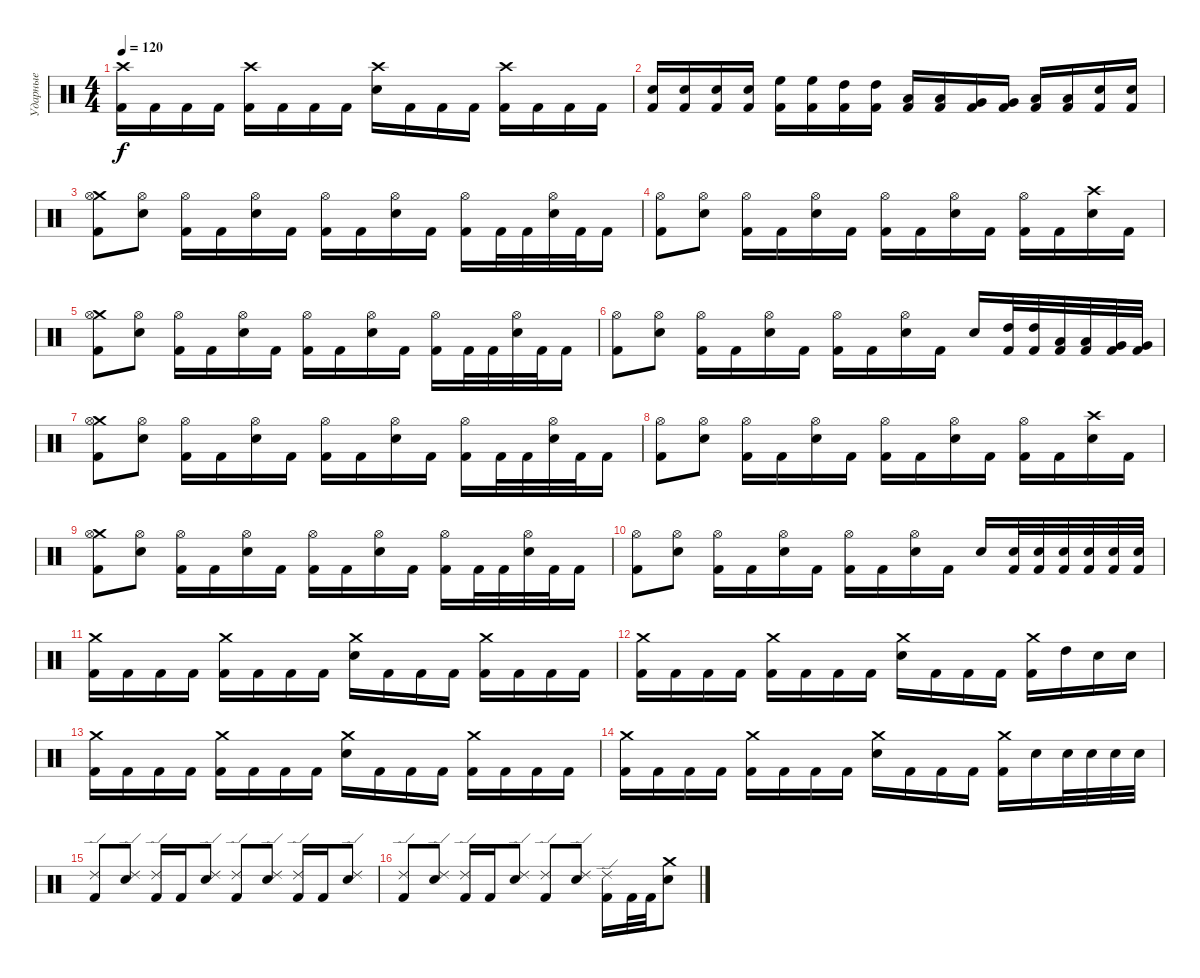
\track ("Ударные" "Ударные") {instrument percussion}
\staff {score}
\articulation defaults
\ts (4 4)
\tempo 120
\clef neutral
\ks c
("Crash high (hit)" "Kick (hit) 2").16{dy f} "Kick (hit) 2".16 "Kick (hit) 2".16 "Kick (hit) 2".16 ("Crash high (hit)" "Kick (hit) 2").16 "Kick (hit) 2".16 "Kick (hit) 2".16 "Kick (hit) 2".16 ("Crash high (hit)" "Electric Snare (hit)").16 "Kick (hit) 2".16 "Kick (hit) 2".16 "Kick (hit) 2".16 ("Crash high (hit)" "Kick (hit) 2").16 "Kick (hit) 2".16 "Kick (hit) 2".16 "Kick (hit) 2".16 |
("Kick (hit) 2" "Electric Snare (hit)").16 ("Kick (hit) 2" "Electric Snare (hit)").16 ("Kick (hit) 2" "Electric Snare (hit)").16 ("Kick (hit) 2" "Electric Snare (hit)").16 ("High Floor Tom (hit)" "Kick (hit) 2").16 ("High Floor Tom (hit)" "Kick (hit) 2").16 ("High Tom (hit)" "Kick (hit) 2").16 ("High Tom (hit)" "Kick (hit) 2").16 ("Low Tom (hit)" "Kick (hit) 2").16 ("Low Tom (hit)" "Kick (hit) 2").16 ("Very Low Tom (hit)" "Kick (hit) 2").16 ("Very Low Tom (hit)" "Kick (hit) 2").16 ("Low Floor Tom (hit)" "Kick (hit) 2").16 ("Low Floor Tom (hit)" "Kick (hit) 2").16 ("Electric Snare (hit)" "Kick (hit) 2").16 ("Electric Snare (hit)" "Kick (hit) 2").16 |
("Crash medium (hit)" "Hi-Hat (open)" "Kick (hit) 2").8 ("Hi-Hat (open)" "Electric Snare (hit)").8 ("Hi-Hat (open)" "Kick (hit) 2").16 "Kick (hit) 2".16 ("Hi-Hat (open)" "Electric Snare (hit)").16 "Kick (hit) 2".16 ("Hi-Hat (open)" "Kick (hit) 2").16 "Kick (hit) 2".16 ("Hi-Hat (open)" "Electric Snare (hit)").16 "Kick (hit) 2".16 ("Hi-Hat (open)" "Kick (hit) 2").16 "Kick (hit) 2".32 "Kick (hit) 2".32 ("Hi-Hat (open)" "Electric Snare (hit)").32 "Kick (hit) 2".32 "Kick (hit) 2".16 |
("Hi-Hat (open)" "Kick (hit) 2").8 ("Hi-Hat (open)" "Electric Snare (hit)").8 ("Hi-Hat (open)" "Kick (hit) 2").16 "Kick (hit) 2".16 ("Hi-Hat (open)" "Electric Snare (hit)").16 "Kick (hit) 2".16 ("Hi-Hat (open)" "Kick (hit) 2").16 "Kick (hit) 2".16 ("Hi-Hat (open)" "Electric Snare (hit)").16 "Kick (hit) 2".16 ("Hi-Hat (open)" "Kick (hit) 2").16 "Kick (hit) 2".16 ("Crash high (hit)" "Electric Snare (hit)").16 "Kick (hit) 2".16 |
("Crash medium (hit)" "Hi-Hat (open)" "Kick (hit) 2").8 ("Hi-Hat (open)" "Electric Snare (hit)").8 ("Hi-Hat (open)" "Kick (hit) 2").16 "Kick (hit) 2".16 ("Hi-Hat (open)" "Electric Snare (hit)").16 "Kick (hit) 2".16 ("Hi-Hat (open)" "Kick (hit) 2").16 "Kick (hit) 2".16 ("Hi-Hat (open)" "Electric Snare (hit)").16 "Kick (hit) 2".16 ("Hi-Hat (open)" "Kick (hit) 2").16 "Kick (hit) 2".32 "Kick (hit) 2".32 ("Hi-Hat (open)" "Electric Snare (hit)").32 "Kick (hit) 2".32 "Kick (hit) 2".16 |
("Hi-Hat (open)" "Kick (hit) 2").8 ("Hi-Hat (open)" "Electric Snare (hit)").8 ("Hi-Hat (open)" "Kick (hit) 2").16 "Kick (hit) 2".16 ("Hi-Hat (open)" "Electric Snare (hit)").16 "Kick (hit) 2".16 ("Hi-Hat (open)" "Kick (hit) 2").16 "Kick (hit) 2".16 ("Hi-Hat (open)" "Electric Snare (hit)").16 "Kick (hit) 2".16 "Electric Snare (hit)".16 ("High Tom (hit)" "Kick (hit) 2").32 ("High Tom (hit)" "Kick (hit) 2").32 ("Low Tom (hit)" "Kick (hit) 2").32 ("Low Tom (hit)" "Kick (hit) 2").32 ("Very Low Tom (hit)" "Kick (hit) 2").32 ("Very Low Tom (hit)" "Kick (hit) 2").32 |
("Crash medium (hit)" "Hi-Hat (open)" "Kick (hit) 2").8 ("Hi-Hat (open)" "Electric Snare (hit)").8 ("Hi-Hat (open)" "Kick (hit) 2").16 "Kick (hit) 2".16 ("Hi-Hat (open)" "Electric Snare (hit)").16 "Kick (hit) 2".16 ("Hi-Hat (open)" "Kick (hit) 2").16 "Kick (hit) 2".16 ("Hi-Hat (open)" "Electric Snare (hit)").16 "Kick (hit) 2".16 ("Hi-Hat (open)" "Kick (hit) 2").16 "Kick (hit) 2".32 "Kick (hit) 2".32 ("Hi-Hat (open)" "Electric Snare (hit)").32 "Kick (hit) 2".32 "Kick (hit) 2".16 |
("Hi-Hat (open)" "Kick (hit) 2").8 ("Hi-Hat (open)" "Electric Snare (hit)").8 ("Hi-Hat (open)" "Kick (hit) 2").16 "Kick (hit) 2".16 ("Hi-Hat (open)" "Electric Snare (hit)").16 "Kick (hit) 2".16 ("Hi-Hat (open)" "Kick (hit) 2").16 "Kick (hit) 2".16 ("Hi-Hat (open)" "Electric Snare (hit)").16 "Kick (hit) 2".16 ("Hi-Hat (open)" "Kick (hit) 2").16 "Kick (hit) 2".16 ("Crash high (hit)" "Electric Snare (hit)").16 "Kick (hit) 2".16 |
("Crash medium (hit)" "Hi-Hat (open)" "Kick (hit) 2").8 ("Hi-Hat (open)" "Electric Snare (hit)").8 ("Hi-Hat (open)" "Kick (hit) 2").16 "Kick (hit) 2".16 ("Hi-Hat (open)" "Electric Snare (hit)").16 "Kick (hit) 2".16 ("Hi-Hat (open)" "Kick (hit) 2").16 "Kick (hit) 2".16 ("Hi-Hat (open)" "Electric Snare (hit)").16 "Kick (hit) 2".16 ("Hi-Hat (open)" "Kick (hit) 2").16 "Kick (hit) 2".32 "Kick (hit) 2".32 ("Hi-Hat (open)" "Electric Snare (hit)").32 "Kick (hit) 2".32 "Kick (hit) 2".16 |
("Hi-Hat (open)" "Kick (hit) 2").8 ("Hi-Hat (open)" "Electric Snare (hit)").8 ("Hi-Hat (open)" "Kick (hit) 2").16 "Kick (hit) 2".16 ("Hi-Hat (open)" "Electric Snare (hit)").16 "Kick (hit) 2".16 ("Hi-Hat (open)" "Kick (hit) 2").16 "Kick (hit) 2".16 ("Hi-Hat (open)" "Electric Snare (hit)").16 "Kick (hit) 2".16 "Electric Snare (hit)".16 ("Electric Snare (hit)" "Kick (hit) 2").32 ("Electric Snare (hit)" "Kick (hit) 2").32 ("Electric Snare (hit)" "Kick (hit) 2").32 ("Electric Snare (hit)" "Kick (hit) 2").32 ("Electric Snare (hit)" "Kick (hit) 2").32 ("Electric Snare (hit)" "Kick (hit) 2").32 |
("Crash medium (hit)" "Kick (hit) 2").16 "Kick (hit) 2".16 "Kick (hit) 2".16 "Kick (hit) 2".16 ("Crash medium (hit)" "Kick (hit) 2").16 "Kick (hit) 2".16 "Kick (hit) 2".16 "Kick (hit) 2".16 ("Crash medium (hit)" "Electric Snare (hit)").16 "Kick (hit) 2".16 "Kick (hit) 2".16 "Kick (hit) 2".16 ("Crash medium (hit)" "Kick (hit) 2").16 "Kick (hit) 2".16 "Kick (hit) 2".16 "Kick (hit) 2".16 |
("Crash medium (hit)" "Kick (hit) 2").16 "Kick (hit) 2".16 "Kick (hit) 2".16 "Kick (hit) 2".16 ("Crash medium (hit)" "Kick (hit) 2").16 "Kick (hit) 2".16 "Kick (hit) 2".16 "Kick (hit) 2".16 ("Crash medium (hit)" "Electric Snare (hit)").16 "Kick (hit) 2".16 "Kick (hit) 2".16 "Kick (hit) 2".16 ("Crash medium (hit)" "Kick (hit) 2").16 "High Tom (hit)".16 "Electric Snare (hit)".16 "Electric Snare (hit)".16 |
("Crash medium (hit)" "Kick (hit) 2").16 "Kick (hit) 2".16 "Kick (hit) 2".16 "Kick (hit) 2".16 ("Crash medium (hit)" "Kick (hit) 2").16 "Kick (hit) 2".16 "Kick (hit) 2".16 "Kick (hit) 2".16 ("Crash medium (hit)" "Electric Snare (hit)").16 "Kick (hit) 2".16 "Kick (hit) 2".16 "Kick (hit) 2".16 ("Crash medium (hit)" "Kick (hit) 2").16 "Kick (hit) 2".16 "Kick (hit) 2".16 "Kick (hit) 2".16 |
("Crash medium (hit)" "Kick (hit) 2").16 "Kick (hit) 2".16 "Kick (hit) 2".16 "Kick (hit) 2".16 ("Crash medium (hit)" "Kick (hit) 2").16 "Kick (hit) 2".16 "Kick (hit) 2".16 "Kick (hit) 2".16 ("Crash medium (hit)" "Electric Snare (hit)").16 "Kick (hit) 2".16 "Kick (hit) 2".16 "Kick (hit) 2".16 ("Crash medium (hit)" "Kick (hit) 2").16 "Electric Snare (hit)".16 "Electric Snare (hit)".32 "Electric Snare (hit)".32 "Electric Snare (hit)".32 "Electric Snare (hit)".32 |
("Ride (edge) 2" "Kick (hit) 2").8 ("Ride (edge) 2" "Electric Snare (hit)").8 ("Ride (edge) 2" "Kick (hit) 2").16 "Kick (hit) 2".16 ("Ride (edge) 2" "Electric Snare (hit)").8 ("Ride (edge) 2" "Kick (hit) 2").8 ("Ride (edge) 2" "Electric Snare (hit)").8 ("Ride (edge) 2" "Kick (hit) 2").16 "Kick (hit) 2".16 ("Ride (edge) 2" "Electric Snare (hit)").8 |
("Ride (edge) 2" "Kick (hit) 2").8 ("Ride (edge) 2" "Electric Snare (hit)").8 ("Ride (edge) 2" "Kick (hit) 2").16 "Kick (hit) 2".16 ("Ride (edge) 2" "Electric Snare (hit)").8 ("Ride (edge) 2" "Kick (hit) 2").8 ("Ride (edge) 2" "Electric Snare (hit)").8 ("Ride (edge) 2" "Kick (hit) 2").16 "Kick (hit) 2".32 "Kick (hit) 2".32 ("Crash medium (hit)" "Electric Snare (hit)").8
